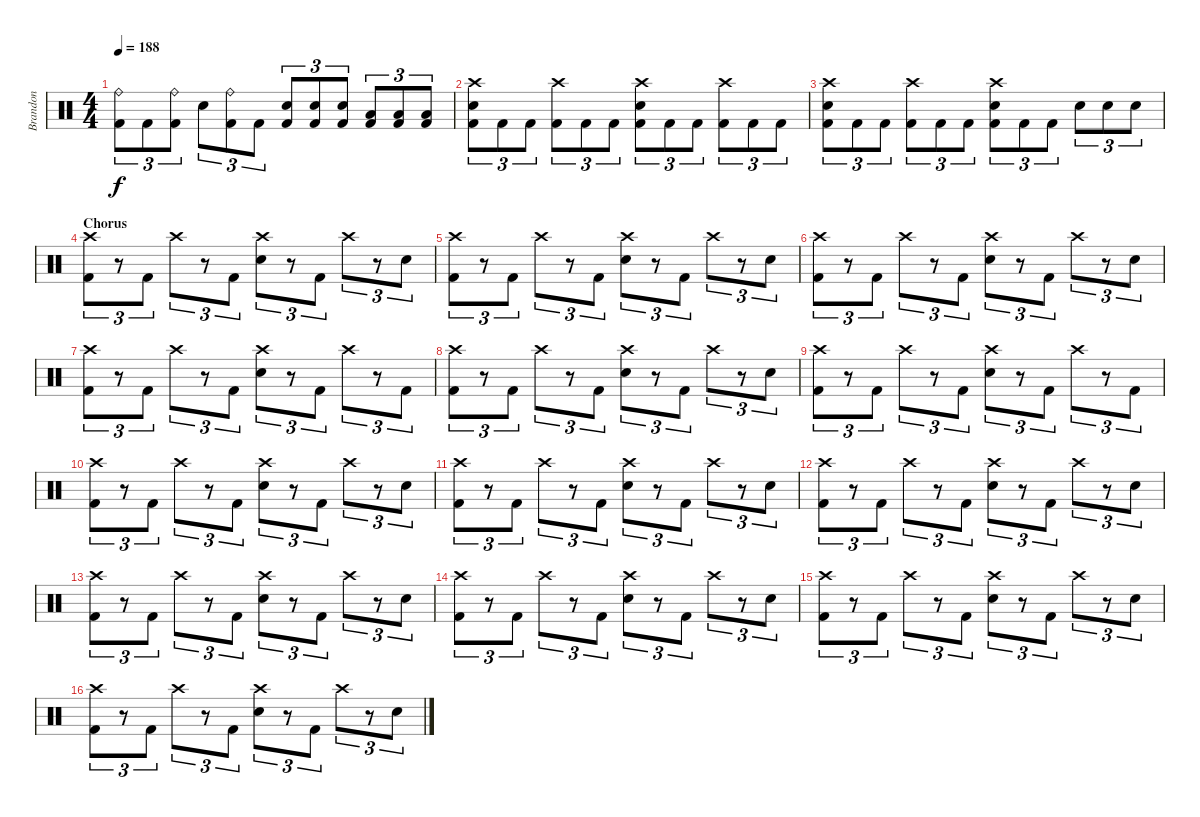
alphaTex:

\track ("Brandon" "Brandon") {instrument percussion}
\staff {score}
\articulation defaults
\ts (4 4)
\tempo 188
\clef neutral
\ks c
("Ride (bell)" "Kick (hit) 2").8{tu (3 2) dy f} "Kick (hit) 2".8{tu (3 2)} ("Ride (bell)" "Kick (hit) 2").8{tu (3 2)} "Electric Snare (hit)".8{tu (3 2)} ("Ride (bell)" "Kick (hit) 2").8{tu (3 2)} "Kick (hit) 2".8{tu (3 2)} ("Electric Snare (hit)" "Kick (hit) 2").8{tu (3 2)} ("Electric Snare (hit)" "Kick (hit) 2").8{tu (3 2)} ("Electric Snare (hit)" "Kick (hit) 2").8{tu (3 2)} ("Low Tom (hit)" "Kick (hit) 2").8{tu (3 2)} ("Low Tom (hit)" "Kick (hit) 2").8{tu (3 2)} ("Low Tom (hit)" "Kick (hit) 2").8{tu (3 2)} |
("Crash high (hit)" "Electric Snare (hit)" "Kick (hit) 2").8{tu (3 2)} "Kick (hit) 2".8{tu (3 2)} "Kick (hit) 2".8{tu (3 2)} ("Crash high (hit)" "Kick (hit) 2").8{tu (3 2)} "Kick (hit) 2".8{tu (3 2)} "Kick (hit) 2".8{tu (3 2)} ("Crash high (hit)" "Electric Snare (hit)" "Kick (hit) 2").8{tu (3 2)} "Kick (hit) 2".8{tu (3 2)} "Kick (hit) 2".8{tu (3 2)} ("Crash high (hit)" "Kick (hit) 2").8{tu (3 2)} "Kick (hit) 2".8{tu (3 2)} "Kick (hit) 2".8{tu (3 2)} |
("Crash high (hit)" "Electric Snare (hit)" "Kick (hit) 2").8{tu (3 2)} "Kick (hit) 2".8{tu (3 2)} "Kick (hit) 2".8{tu (3 2)} ("Crash high (hit)" "Kick (hit) 2").8{tu (3 2)} "Kick (hit) 2".8{tu (3 2)} "Kick (hit) 2".8{tu (3 2)} ("Crash high (hit)" "Electric Snare (hit)" "Kick (hit) 2").8{tu (3 2)} "Kick (hit) 2".8{tu (3 2)} "Kick (hit) 2".8{tu (3 2)} "Electric Snare (hit)".8{tu (3 2)} "Electric Snare (hit)".8{tu (3 2)} "Electric Snare (hit)".8{tu (3 2)} |
\section ("" "Chorus")
("Crash high (hit)" "Kick (hit) 2").8{tu (3 2)} r.8{tu (3 2)} "Kick (hit) 2".8{tu (3 2)} "Crash high (hit)".8{tu (3 2)} r.8{tu (3 2)} "Kick (hit) 2".8{tu (3 2)} ("Crash high (hit)" "Electric Snare (hit)").8{tu (3 2)} r.8{tu (3 2)} "Kick (hit) 2".8{tu (3 2)} "Crash high (hit)".8{tu (3 2)} r.8{tu (3 2)} "Electric Snare (hit)".8{tu (3 2)} |
("Crash high (hit)" "Kick (hit) 2").8{tu (3 2)} r.8{tu (3 2)} "Kick (hit) 2".8{tu (3 2)} "Crash high (hit)".8{tu (3 2)} r.8{tu (3 2)} "Kick (hit) 2".8{tu (3 2)} ("Crash high (hit)" "Electric Snare (hit)").8{tu (3 2)} r.8{tu (3 2)} "Kick (hit) 2".8{tu (3 2)} "Crash high (hit)".8{tu (3 2)} r.8{tu (3 2)} "Electric Snare (hit)".8{tu (3 2)} |
("Crash high (hit)" "Kick (hit) 2").8{tu (3 2)} r.8{tu (3 2)} "Kick (hit) 2".8{tu (3 2)} "Crash high (hit)".8{tu (3 2)} r.8{tu (3 2)} "Kick (hit) 2".8{tu (3 2)} ("Crash high (hit)" "Electric Snare (hit)").8{tu (3 2)} r.8{tu (3 2)} "Kick (hit) 2".8{tu (3 2)} "Crash high (hit)".8{tu (3 2)} r.8{tu (3 2)} "Electric Snare (hit)".8{tu (3 2)} |
("Crash high (hit)" "Kick (hit) 2").8{tu (3 2)} r.8{tu (3 2)} "Kick (hit) 2".8{tu (3 2)} "Crash high (hit)".8{tu (3 2)} r.8{tu (3 2)} "Kick (hit) 2".8{tu (3 2)} ("Crash high (hit)" "Electric Snare (hit)").8{tu (3 2)} r.8{tu (3 2)} "Kick (hit) 2".8{tu (3 2)} "Crash high (hit)".8{tu (3 2)} r.8{tu (3 2)} "Kick (hit) 2".8{tu (3 2)} |
("Crash high (hit)" "Kick (hit) 2").8{tu (3 2)} r.8{tu (3 2)} "Kick (hit) 2".8{tu (3 2)} "Crash high (hit)".8{tu (3 2)} r.8{tu (3 2)} "Kick (hit) 2".8{tu (3 2)} ("Crash high (hit)" "Electric Snare (hit)").8{tu (3 2)} r.8{tu (3 2)} "Kick (hit) 2".8{tu (3 2)} "Crash high (hit)".8{tu (3 2)} r.8{tu (3 2)} "Electric Snare (hit)".8{tu (3 2)} |
("Crash high (hit)" "Kick (hit) 2").8{tu (3 2)} r.8{tu (3 2)} "Kick (hit) 2".8{tu (3 2)} "Crash high (hit)".8{tu (3 2)} r.8{tu (3 2)} "Kick (hit) 2".8{tu (3 2)} ("Crash high (hit)" "Electric Snare (hit)").8{tu (3 2)} r.8{tu (3 2)} "Kick (hit) 2".8{tu (3 2)} "Crash high (hit)".8{tu (3 2)} r.8{tu (3 2)} "Kick (hit) 2".8{tu (3 2)} |
("Crash high (hit)" "Kick (hit) 2").8{tu (3 2)} r.8{tu (3 2)} "Kick (hit) 2".8{tu (3 2)} "Crash high (hit)".8{tu (3 2)} r.8{tu (3 2)} "Kick (hit) 2".8{tu (3 2)} ("Crash high (hit)" "Electric Snare (hit)").8{tu (3 2)} r.8{tu (3 2)} "Kick (hit) 2".8{tu (3 2)} "Crash high (hit)".8{tu (3 2)} r.8{tu (3 2)} "Electric Snare (hit)".8{tu (3 2)} |
("Crash high (hit)" "Kick (hit) 2").8{tu (3 2)} r.8{tu (3 2)} "Kick (hit) 2".8{tu (3 2)} "Crash high (hit)".8{tu (3 2)} r.8{tu (3 2)} "Kick (hit) 2".8{tu (3 2)} ("Crash high (hit)" "Electric Snare (hit)").8{tu (3 2)} r.8{tu (3 2)} "Kick (hit) 2".8{tu (3 2)} "Crash high (hit)".8{tu (3 2)} r.8{tu (3 2)} "Electric Snare (hit)".8{tu (3 2)} |
("Crash high (hit)" "Kick (hit) 2").8{tu (3 2)} r.8{tu (3 2)} "Kick (hit) 2".8{tu (3 2)} "Crash high (hit)".8{tu (3 2)} r.8{tu (3 2)} "Kick (hit) 2".8{tu (3 2)} ("Crash high (hit)" "Electric Snare (hit)").8{tu (3 2)} r.8{tu (3 2)} "Kick (hit) 2".8{tu (3 2)} "Crash high (hit)".8{tu (3 2)} r.8{tu (3 2)} "Electric Snare (hit)".8{tu (3 2)} |
("Crash high (hit)" "Kick (hit) 2").8{tu (3 2)} r.8{tu (3 2)} "Kick (hit) 2".8{tu (3 2)} "Crash high (hit)".8{tu (3 2)} r.8{tu (3 2)} "Kick (hit) 2".8{tu (3 2)} ("Crash high (hit)" "Electric Snare (hit)").8{tu (3 2)} r.8{tu (3 2)} "Kick (hit) 2".8{tu (3 2)} "Crash high (hit)".8{tu (3 2)} r.8{tu (3 2)} "Electric Snare (hit)".8{tu (3 2)} |
("Crash high (hit)" "Kick (hit) 2").8{tu (3 2)} r.8{tu (3 2)} "Kick (hit) 2".8{tu (3 2)} "Crash high (hit)".8{tu (3 2)} r.8{tu (3 2)} "Kick (hit) 2".8{tu (3 2)} ("Crash high (hit)" "Electric Snare (hit)").8{tu (3 2)} r.8{tu (3 2)} "Kick (hit) 2".8{tu (3 2)} "Crash high (hit)".8{tu (3 2)} r.8{tu (3 2)} "Electric Snare (hit)".8{tu (3 2)} |
("Crash high (hit)" "Kick (hit) 2").8{tu (3 2)} r.8{tu (3 2)} "Kick (hit) 2".8{tu (3 2)} "Crash high (hit)".8{tu (3 2)} r.8{tu (3 2)} "Kick (hit) 2".8{tu (3 2)} ("Crash high (hit)" "Electric Snare (hit)").8{tu (3 2)} r.8{tu (3 2)} "Kick (hit) 2".8{tu (3 2)} "Crash high (hit)".8{tu (3 2)} r.8{tu (3 2)} "Electric Snare (hit)".8{tu (3 2)} |
("Crash high (hit)" "Kick (hit) 2").8{tu (3 2)} r.8{tu (3 2)} "Kick (hit) 2".8{tu (3 2)} "Crash high (hit)".8{tu (3 2)} r.8{tu (3 2)} "Kick (hit) 2".8{tu (3 2)} ("Crash high (hit)" "Electric Snare (hit)").8{tu (3 2)} r.8{tu (3 2)} "Kick (hit) 2".8{tu (3 2)} "Crash high (hit)".8{tu (3 2)} r.8{tu (3 2)} "Electric Snare (hit)".8{tu (3 2)}
